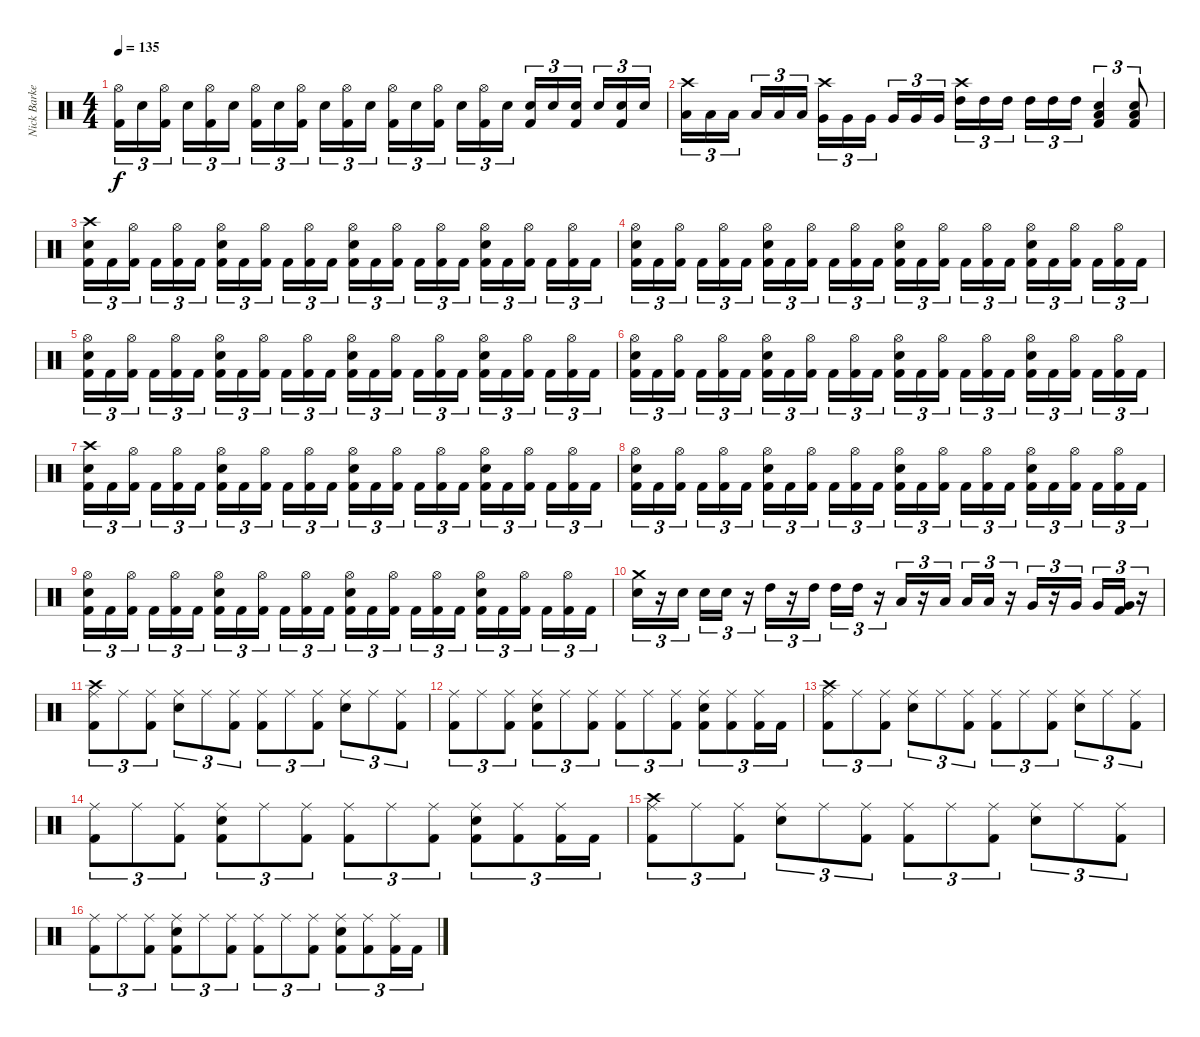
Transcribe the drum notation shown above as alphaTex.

\track ("Nick Barker" "Nick Barke") {instrument percussion}
\staff {score}
\articulation defaults
\ts (4 4)
\tempo 135
\clef neutral
\ks c
("Hi-Hat (open)" "Kick (hit) 2").16{tu (3 2) dy f} "Electric Snare (hit)".16{tu (3 2)} ("Hi-Hat (open)" "Kick (hit) 2").16{tu (3 2)} "Electric Snare (hit)".16{tu (3 2)} ("Hi-Hat (open)" "Kick (hit) 2").16{tu (3 2)} "Electric Snare (hit)".16{tu (3 2)} ("Hi-Hat (open)" "Kick (hit) 2").16{tu (3 2)} "Electric Snare (hit)".16{tu (3 2)} ("Hi-Hat (open)" "Kick (hit) 2").16{tu (3 2)} "Electric Snare (hit)".16{tu (3 2)} ("Hi-Hat (open)" "Kick (hit) 2").16{tu (3 2)} "Electric Snare (hit)".16{tu (3 2)} ("Hi-Hat (open)" "Kick (hit) 2").16{tu (3 2)} "Electric Snare (hit)".16{tu (3 2)} ("Hi-Hat (open)" "Kick (hit) 2").16{tu (3 2)} "Electric Snare (hit)".16{tu (3 2)} ("Hi-Hat (open)" "Kick (hit) 2").16{tu (3 2)} "Electric Snare (hit)".16{tu (3 2)} ("Electric Snare (hit)" "Kick (hit) 2").16{tu (3 2)} "Electric Snare (hit)".16{tu (3 2)} ("Electric Snare (hit)" "Kick (hit) 2").16{tu (3 2)} "Electric Snare (hit)".16{tu (3 2)} ("Electric Snare (hit)" "Kick (hit) 2").16{tu (3 2)} "Electric Snare (hit)".16{tu (3 2)} |
("Crash high (hit)" "Low Tom (hit)").16{tu (3 2)} "Low Tom (hit)".16{tu (3 2)} "Low Tom (hit)".16{tu (3 2)} "Low Tom (hit)".16{tu (3 2)} "Low Tom (hit)".16{tu (3 2)} "Low Tom (hit)".16{tu (3 2)} ("Crash high (hit)" "Very Low Tom (hit)").16{tu (3 2)} "Very Low Tom (hit)".16{tu (3 2)} "Very Low Tom (hit)".16{tu (3 2)} "Very Low Tom (hit)".16{tu (3 2)} "Very Low Tom (hit)".16{tu (3 2)} "Very Low Tom (hit)".16{tu (3 2)} ("Crash high (hit)" "High Tom (hit)").16{tu (3 2)} "High Tom (hit)".16{tu (3 2)} "High Tom (hit)".16{tu (3 2)} "High Tom (hit)".16{tu (3 2)} "High Tom (hit)".16{tu (3 2)} "High Tom (hit)".16{tu (3 2)} ("Low Floor Tom (hit)" "Electric Snare (hit)" "Kick (hit) 2").4{tu (3 2)} ("Low Floor Tom (hit)" "Electric Snare (hit)" "Kick (hit) 2").8{tu (3 2)} |
\section ("" "")
("Crash high (hit)" "Electric Snare (hit)" "Kick (hit) 2").16{tu (3 2)} "Kick (hit) 2".16{tu (3 2)} ("Hi-Hat (open)" "Kick (hit) 2").16{tu (3 2)} "Kick (hit) 2".16{tu (3 2)} ("Hi-Hat (open)" "Kick (hit) 2").16{tu (3 2)} "Kick (hit) 2".16{tu (3 2)} ("Hi-Hat (open)" "Electric Snare (hit)" "Kick (hit) 2").16{tu (3 2)} "Kick (hit) 2".16{tu (3 2)} ("Hi-Hat (open)" "Kick (hit) 2").16{tu (3 2)} "Kick (hit) 2".16{tu (3 2)} ("Hi-Hat (open)" "Kick (hit) 2").16{tu (3 2)} "Kick (hit) 2".16{tu (3 2)} ("Hi-Hat (open)" "Electric Snare (hit)" "Kick (hit) 2").16{tu (3 2)} "Kick (hit) 2".16{tu (3 2)} ("Hi-Hat (open)" "Kick (hit) 2").16{tu (3 2)} "Kick (hit) 2".16{tu (3 2)} ("Hi-Hat (open)" "Kick (hit) 2").16{tu (3 2)} "Kick (hit) 2".16{tu (3 2)} ("Hi-Hat (open)" "Electric Snare (hit)" "Kick (hit) 2").16{tu (3 2)} "Kick (hit) 2".16{tu (3 2)} ("Hi-Hat (open)" "Kick (hit) 2").16{tu (3 2)} "Kick (hit) 2".16{tu (3 2)} ("Hi-Hat (open)" "Kick (hit) 2").16{tu (3 2)} "Kick (hit) 2".16{tu (3 2)} |
("Hi-Hat (open)" "Electric Snare (hit)" "Kick (hit) 2").16{tu (3 2)} "Kick (hit) 2".16{tu (3 2)} ("Hi-Hat (open)" "Kick (hit) 2").16{tu (3 2)} "Kick (hit) 2".16{tu (3 2)} ("Hi-Hat (open)" "Kick (hit) 2").16{tu (3 2)} "Kick (hit) 2".16{tu (3 2)} ("Hi-Hat (open)" "Electric Snare (hit)" "Kick (hit) 2").16{tu (3 2)} "Kick (hit) 2".16{tu (3 2)} ("Hi-Hat (open)" "Kick (hit) 2").16{tu (3 2)} "Kick (hit) 2".16{tu (3 2)} ("Hi-Hat (open)" "Kick (hit) 2").16{tu (3 2)} "Kick (hit) 2".16{tu (3 2)} ("Hi-Hat (open)" "Electric Snare (hit)" "Kick (hit) 2").16{tu (3 2)} "Kick (hit) 2".16{tu (3 2)} ("Hi-Hat (open)" "Kick (hit) 2").16{tu (3 2)} "Kick (hit) 2".16{tu (3 2)} ("Hi-Hat (open)" "Kick (hit) 2").16{tu (3 2)} "Kick (hit) 2".16{tu (3 2)} ("Hi-Hat (open)" "Electric Snare (hit)" "Kick (hit) 2").16{tu (3 2)} "Kick (hit) 2".16{tu (3 2)} ("Hi-Hat (open)" "Kick (hit) 2").16{tu (3 2)} "Kick (hit) 2".16{tu (3 2)} ("Hi-Hat (open)" "Kick (hit) 2").16{tu (3 2)} "Kick (hit) 2".16{tu (3 2)} |
("Hi-Hat (open)" "Electric Snare (hit)" "Kick (hit) 2").16{tu (3 2)} "Kick (hit) 2".16{tu (3 2)} ("Hi-Hat (open)" "Kick (hit) 2").16{tu (3 2)} "Kick (hit) 2".16{tu (3 2)} ("Hi-Hat (open)" "Kick (hit) 2").16{tu (3 2)} "Kick (hit) 2".16{tu (3 2)} ("Hi-Hat (open)" "Electric Snare (hit)" "Kick (hit) 2").16{tu (3 2)} "Kick (hit) 2".16{tu (3 2)} ("Hi-Hat (open)" "Kick (hit) 2").16{tu (3 2)} "Kick (hit) 2".16{tu (3 2)} ("Hi-Hat (open)" "Kick (hit) 2").16{tu (3 2)} "Kick (hit) 2".16{tu (3 2)} ("Hi-Hat (open)" "Electric Snare (hit)" "Kick (hit) 2").16{tu (3 2)} "Kick (hit) 2".16{tu (3 2)} ("Hi-Hat (open)" "Kick (hit) 2").16{tu (3 2)} "Kick (hit) 2".16{tu (3 2)} ("Hi-Hat (open)" "Kick (hit) 2").16{tu (3 2)} "Kick (hit) 2".16{tu (3 2)} ("Hi-Hat (open)" "Electric Snare (hit)" "Kick (hit) 2").16{tu (3 2)} "Kick (hit) 2".16{tu (3 2)} ("Hi-Hat (open)" "Kick (hit) 2").16{tu (3 2)} "Kick (hit) 2".16{tu (3 2)} ("Hi-Hat (open)" "Kick (hit) 2").16{tu (3 2)} "Kick (hit) 2".16{tu (3 2)} |
("Hi-Hat (open)" "Electric Snare (hit)" "Kick (hit) 2").16{tu (3 2)} "Kick (hit) 2".16{tu (3 2)} ("Hi-Hat (open)" "Kick (hit) 2").16{tu (3 2)} "Kick (hit) 2".16{tu (3 2)} ("Hi-Hat (open)" "Kick (hit) 2").16{tu (3 2)} "Kick (hit) 2".16{tu (3 2)} ("Hi-Hat (open)" "Electric Snare (hit)" "Kick (hit) 2").16{tu (3 2)} "Kick (hit) 2".16{tu (3 2)} ("Hi-Hat (open)" "Kick (hit) 2").16{tu (3 2)} "Kick (hit) 2".16{tu (3 2)} ("Hi-Hat (open)" "Kick (hit) 2").16{tu (3 2)} "Kick (hit) 2".16{tu (3 2)} ("Hi-Hat (open)" "Electric Snare (hit)" "Kick (hit) 2").16{tu (3 2)} "Kick (hit) 2".16{tu (3 2)} ("Hi-Hat (open)" "Kick (hit) 2").16{tu (3 2)} "Kick (hit) 2".16{tu (3 2)} ("Hi-Hat (open)" "Kick (hit) 2").16{tu (3 2)} "Kick (hit) 2".16{tu (3 2)} ("Hi-Hat (open)" "Electric Snare (hit)" "Kick (hit) 2").16{tu (3 2)} "Kick (hit) 2".16{tu (3 2)} ("Hi-Hat (open)" "Kick (hit) 2").16{tu (3 2)} "Kick (hit) 2".16{tu (3 2)} ("Hi-Hat (open)" "Kick (hit) 2").16{tu (3 2)} "Kick (hit) 2".16{tu (3 2)} |
("Crash high (hit)" "Electric Snare (hit)" "Kick (hit) 2").16{tu (3 2)} "Kick (hit) 2".16{tu (3 2)} ("Hi-Hat (open)" "Kick (hit) 2").16{tu (3 2)} "Kick (hit) 2".16{tu (3 2)} ("Hi-Hat (open)" "Kick (hit) 2").16{tu (3 2)} "Kick (hit) 2".16{tu (3 2)} ("Hi-Hat (open)" "Electric Snare (hit)" "Kick (hit) 2").16{tu (3 2)} "Kick (hit) 2".16{tu (3 2)} ("Hi-Hat (open)" "Kick (hit) 2").16{tu (3 2)} "Kick (hit) 2".16{tu (3 2)} ("Hi-Hat (open)" "Kick (hit) 2").16{tu (3 2)} "Kick (hit) 2".16{tu (3 2)} ("Hi-Hat (open)" "Electric Snare (hit)" "Kick (hit) 2").16{tu (3 2)} "Kick (hit) 2".16{tu (3 2)} ("Hi-Hat (open)" "Kick (hit) 2").16{tu (3 2)} "Kick (hit) 2".16{tu (3 2)} ("Hi-Hat (open)" "Kick (hit) 2").16{tu (3 2)} "Kick (hit) 2".16{tu (3 2)} ("Hi-Hat (open)" "Electric Snare (hit)" "Kick (hit) 2").16{tu (3 2)} "Kick (hit) 2".16{tu (3 2)} ("Hi-Hat (open)" "Kick (hit) 2").16{tu (3 2)} "Kick (hit) 2".16{tu (3 2)} ("Hi-Hat (open)" "Kick (hit) 2").16{tu (3 2)} "Kick (hit) 2".16{tu (3 2)} |
("Hi-Hat (open)" "Electric Snare (hit)" "Kick (hit) 2").16{tu (3 2)} "Kick (hit) 2".16{tu (3 2)} ("Hi-Hat (open)" "Kick (hit) 2").16{tu (3 2)} "Kick (hit) 2".16{tu (3 2)} ("Hi-Hat (open)" "Kick (hit) 2").16{tu (3 2)} "Kick (hit) 2".16{tu (3 2)} ("Hi-Hat (open)" "Electric Snare (hit)" "Kick (hit) 2").16{tu (3 2)} "Kick (hit) 2".16{tu (3 2)} ("Hi-Hat (open)" "Kick (hit) 2").16{tu (3 2)} "Kick (hit) 2".16{tu (3 2)} ("Hi-Hat (open)" "Kick (hit) 2").16{tu (3 2)} "Kick (hit) 2".16{tu (3 2)} ("Hi-Hat (open)" "Electric Snare (hit)" "Kick (hit) 2").16{tu (3 2)} "Kick (hit) 2".16{tu (3 2)} ("Hi-Hat (open)" "Kick (hit) 2").16{tu (3 2)} "Kick (hit) 2".16{tu (3 2)} ("Hi-Hat (open)" "Kick (hit) 2").16{tu (3 2)} "Kick (hit) 2".16{tu (3 2)} ("Hi-Hat (open)" "Electric Snare (hit)" "Kick (hit) 2").16{tu (3 2)} "Kick (hit) 2".16{tu (3 2)} ("Hi-Hat (open)" "Kick (hit) 2").16{tu (3 2)} "Kick (hit) 2".16{tu (3 2)} ("Hi-Hat (open)" "Kick (hit) 2").16{tu (3 2)} "Kick (hit) 2".16{tu (3 2)} |
("Hi-Hat (open)" "Electric Snare (hit)" "Kick (hit) 2").16{tu (3 2)} "Kick (hit) 2".16{tu (3 2)} ("Hi-Hat (open)" "Kick (hit) 2").16{tu (3 2)} "Kick (hit) 2".16{tu (3 2)} ("Hi-Hat (open)" "Kick (hit) 2").16{tu (3 2)} "Kick (hit) 2".16{tu (3 2)} ("Hi-Hat (open)" "Electric Snare (hit)" "Kick (hit) 2").16{tu (3 2)} "Kick (hit) 2".16{tu (3 2)} ("Hi-Hat (open)" "Kick (hit) 2").16{tu (3 2)} "Kick (hit) 2".16{tu (3 2)} ("Hi-Hat (open)" "Kick (hit) 2").16{tu (3 2)} "Kick (hit) 2".16{tu (3 2)} ("Hi-Hat (open)" "Electric Snare (hit)" "Kick (hit) 2").16{tu (3 2)} "Kick (hit) 2".16{tu (3 2)} ("Hi-Hat (open)" "Kick (hit) 2").16{tu (3 2)} "Kick (hit) 2".16{tu (3 2)} ("Hi-Hat (open)" "Kick (hit) 2").16{tu (3 2)} "Kick (hit) 2".16{tu (3 2)} ("Hi-Hat (open)" "Electric Snare (hit)" "Kick (hit) 2").16{tu (3 2)} "Kick (hit) 2".16{tu (3 2)} ("Hi-Hat (open)" "Kick (hit) 2").16{tu (3 2)} "Kick (hit) 2".16{tu (3 2)} ("Hi-Hat (open)" "Kick (hit) 2").16{tu (3 2)} "Kick (hit) 2".16{tu (3 2)} |
("Crash medium (hit)" "Electric Snare (hit)").16{tu (3 2)} r.16{tu (3 2)} "Electric Snare (hit)".16{tu (3 2)} "Electric Snare (hit)".16{tu (3 2)} "Electric Snare (hit)".16{tu (3 2)} r.16{tu (3 2)} "High Tom (hit)".16{tu (3 2)} r.16{tu (3 2)} "High Tom (hit)".16{tu (3 2)} "High Tom (hit)".16{tu (3 2)} "High Tom (hit)".16{tu (3 2)} r.16{tu (3 2)} "Low Tom (hit)".16{tu (3 2)} r.16{tu (3 2)} "Low Tom (hit)".16{tu (3 2)} "Low Tom (hit)".16{tu (3 2)} "Low Tom (hit)".16{tu (3 2)} r.16{tu (3 2)} "Very Low Tom (hit)".16{tu (3 2)} r.16{tu (3 2)} "Very Low Tom (hit)".16{tu (3 2)} "Very Low Tom (hit)".16{tu (3 2)} ("Very Low Tom (hit)" "Kick (hit) 2").16{tu (3 2)} r.16{tu (3 2)} |
\section ("" "")
("Crash high (hit)" "Ride (middle)" "Kick (hit) 2").8{tu (3 2)} "Ride (middle)".8{tu (3 2)} ("Ride (middle)" "Kick (hit) 2").8{tu (3 2)} ("Ride (middle)" "Electric Snare (hit)").8{tu (3 2)} "Ride (middle)".8{tu (3 2)} ("Ride (middle)" "Kick (hit) 2").8{tu (3 2)} ("Ride (middle)" "Kick (hit) 2").8{tu (3 2)} "Ride (middle)".8{tu (3 2)} ("Ride (middle)" "Kick (hit) 2").8{tu (3 2)} ("Ride (middle)" "Electric Snare (hit)").8{tu (3 2)} "Ride (middle)".8{tu (3 2)} ("Ride (middle)" "Kick (hit) 2").8{tu (3 2)} |
("Ride (middle)" "Kick (hit) 2").8{tu (3 2)} "Ride (middle)".8{tu (3 2)} ("Ride (middle)" "Kick (hit) 2").8{tu (3 2)} ("Ride (middle)" "Electric Snare (hit)" "Kick (hit) 2").8{tu (3 2)} "Ride (middle)".8{tu (3 2)} ("Ride (middle)" "Kick (hit) 2").8{tu (3 2)} ("Ride (middle)" "Kick (hit) 2").8{tu (3 2)} "Ride (middle)".8{tu (3 2)} ("Ride (middle)" "Kick (hit) 2").8{tu (3 2)} ("Ride (middle)" "Electric Snare (hit)" "Kick (hit) 2").8{tu (3 2)} ("Ride (middle)" "Kick (hit) 2").8{tu (3 2)} ("Ride (middle)" "Kick (hit) 2").16{tu (3 2)} "Kick (hit) 2".16{tu (3 2)} |
("Crash high (hit)" "Ride (middle)" "Kick (hit) 2").8{tu (3 2)} "Ride (middle)".8{tu (3 2)} ("Ride (middle)" "Kick (hit) 2").8{tu (3 2)} ("Ride (middle)" "Electric Snare (hit)").8{tu (3 2)} "Ride (middle)".8{tu (3 2)} ("Ride (middle)" "Kick (hit) 2").8{tu (3 2)} ("Ride (middle)" "Kick (hit) 2").8{tu (3 2)} "Ride (middle)".8{tu (3 2)} ("Ride (middle)" "Kick (hit) 2").8{tu (3 2)} ("Ride (middle)" "Electric Snare (hit)").8{tu (3 2)} "Ride (middle)".8{tu (3 2)} ("Ride (middle)" "Kick (hit) 2").8{tu (3 2)} |
("Ride (middle)" "Kick (hit) 2").8{tu (3 2)} "Ride (middle)".8{tu (3 2)} ("Ride (middle)" "Kick (hit) 2").8{tu (3 2)} ("Ride (middle)" "Electric Snare (hit)" "Kick (hit) 2").8{tu (3 2)} "Ride (middle)".8{tu (3 2)} ("Ride (middle)" "Kick (hit) 2").8{tu (3 2)} ("Ride (middle)" "Kick (hit) 2").8{tu (3 2)} "Ride (middle)".8{tu (3 2)} ("Ride (middle)" "Kick (hit) 2").8{tu (3 2)} ("Ride (middle)" "Electric Snare (hit)" "Kick (hit) 2").8{tu (3 2)} ("Ride (middle)" "Kick (hit) 2").8{tu (3 2)} ("Ride (middle)" "Kick (hit) 2").16{tu (3 2)} "Kick (hit) 2".16{tu (3 2)} |
("Crash high (hit)" "Ride (middle)" "Kick (hit) 2").8{tu (3 2)} "Ride (middle)".8{tu (3 2)} ("Ride (middle)" "Kick (hit) 2").8{tu (3 2)} ("Ride (middle)" "Electric Snare (hit)").8{tu (3 2)} "Ride (middle)".8{tu (3 2)} ("Ride (middle)" "Kick (hit) 2").8{tu (3 2)} ("Ride (middle)" "Kick (hit) 2").8{tu (3 2)} "Ride (middle)".8{tu (3 2)} ("Ride (middle)" "Kick (hit) 2").8{tu (3 2)} ("Ride (middle)" "Electric Snare (hit)").8{tu (3 2)} "Ride (middle)".8{tu (3 2)} ("Ride (middle)" "Kick (hit) 2").8{tu (3 2)} |
("Ride (middle)" "Kick (hit) 2").8{tu (3 2)} "Ride (middle)".8{tu (3 2)} ("Ride (middle)" "Kick (hit) 2").8{tu (3 2)} ("Ride (middle)" "Electric Snare (hit)" "Kick (hit) 2").8{tu (3 2)} "Ride (middle)".8{tu (3 2)} ("Ride (middle)" "Kick (hit) 2").8{tu (3 2)} ("Ride (middle)" "Kick (hit) 2").8{tu (3 2)} "Ride (middle)".8{tu (3 2)} ("Ride (middle)" "Kick (hit) 2").8{tu (3 2)} ("Ride (middle)" "Electric Snare (hit)" "Kick (hit) 2").8{tu (3 2)} ("Ride (middle)" "Kick (hit) 2").8{tu (3 2)} ("Ride (middle)" "Kick (hit) 2").16{tu (3 2)} "Kick (hit) 2".16{tu (3 2)}
